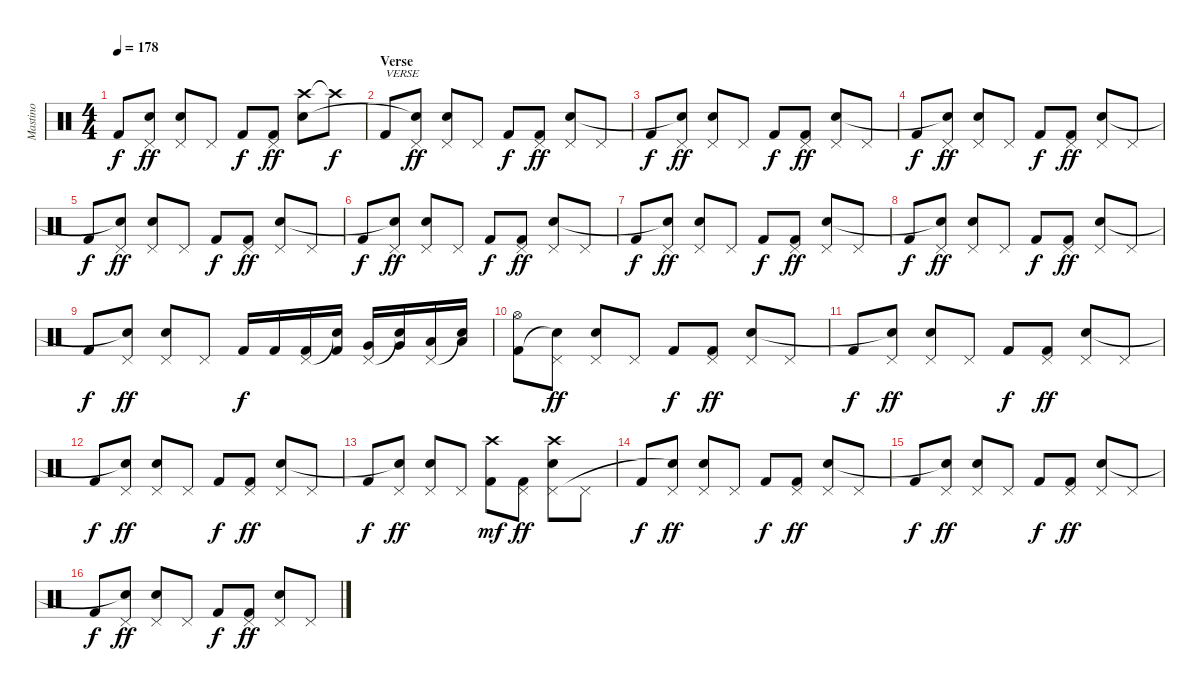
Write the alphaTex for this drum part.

\track ("Mastino" "Mastino") {instrument percussion}
\staff {score}
\articulation defaults
\ts (4 4)
\tempo 178
\clef neutral
\ks c "Kick (hit) 2".8{dy f}
("Pedal Hi-Hat (hit)" "Snare (hit)"{t}).8{dy ff} ("Pedal Hi-Hat (hit)" "Electric Snare (hit)").8 "Pedal Hi-Hat (hit)".8 "Kick (hit) 2".8{dy f} ("Pedal Hi-Hat (hit)" "Kick (hit) 2").8{dy ff} ("Crash high (hit)" "Electric Snare (hit)").8 "Crash high (hit)"{t}.8{dy f} |
\section ("" "Verse")
"Kick (hit) 2".8{txt "VERSE"} ("Pedal Hi-Hat (hit)" "Snare (hit)"{t}).8{dy ff} ("Pedal Hi-Hat (hit)" "Electric Snare (hit)").8 "Pedal Hi-Hat (hit)".8 "Kick (hit) 2".8{dy f} ("Pedal Hi-Hat (hit)" "Kick (hit) 2").8{dy ff} ("Pedal Hi-Hat (hit)" "Electric Snare (hit)").8 "Pedal Hi-Hat (hit)".8 |
"Kick (hit) 2".8{dy f} ("Pedal Hi-Hat (hit)" "Snare (hit)"{t}).8{dy ff} ("Pedal Hi-Hat (hit)" "Electric Snare (hit)").8 "Pedal Hi-Hat (hit)".8 "Kick (hit) 2".8{dy f} ("Pedal Hi-Hat (hit)" "Kick (hit) 2").8{dy ff} ("Pedal Hi-Hat (hit)" "Electric Snare (hit)").8 "Pedal Hi-Hat (hit)".8 |
"Kick (hit) 2".8{dy f} ("Pedal Hi-Hat (hit)" "Snare (hit)"{t}).8{dy ff} ("Pedal Hi-Hat (hit)" "Electric Snare (hit)").8 "Pedal Hi-Hat (hit)".8 "Kick (hit) 2".8{dy f} ("Pedal Hi-Hat (hit)" "Kick (hit) 2").8{dy ff} ("Pedal Hi-Hat (hit)" "Electric Snare (hit)").8 "Pedal Hi-Hat (hit)".8 |
"Kick (hit) 2".8{dy f} ("Pedal Hi-Hat (hit)" "Snare (hit)"{t}).8{dy ff} ("Pedal Hi-Hat (hit)" "Electric Snare (hit)").8 "Pedal Hi-Hat (hit)".8 "Kick (hit) 2".8{dy f} ("Pedal Hi-Hat (hit)" "Kick (hit) 2").8{dy ff} ("Pedal Hi-Hat (hit)" "Electric Snare (hit)").8 "Pedal Hi-Hat (hit)".8 |
"Kick (hit) 2".8{dy f} ("Pedal Hi-Hat (hit)" "Snare (hit)"{t}).8{dy ff} ("Pedal Hi-Hat (hit)" "Electric Snare (hit)").8 "Pedal Hi-Hat (hit)".8 "Kick (hit) 2".8{dy f} ("Pedal Hi-Hat (hit)" "Kick (hit) 2").8{dy ff} ("Pedal Hi-Hat (hit)" "Electric Snare (hit)").8 "Pedal Hi-Hat (hit)".8 |
"Kick (hit) 2".8{dy f} ("Pedal Hi-Hat (hit)" "Snare (hit)"{t}).8{dy ff} ("Pedal Hi-Hat (hit)" "Electric Snare (hit)").8 "Pedal Hi-Hat (hit)".8 "Kick (hit) 2".8{dy f} ("Pedal Hi-Hat (hit)" "Kick (hit) 2").8{dy ff} ("Pedal Hi-Hat (hit)" "Electric Snare (hit)").8 "Pedal Hi-Hat (hit)".8 |
"Kick (hit) 2".8{dy f} ("Pedal Hi-Hat (hit)" "Snare (hit)"{t}).8{dy ff} ("Pedal Hi-Hat (hit)" "Electric Snare (hit)").8 "Pedal Hi-Hat (hit)".8 "Kick (hit) 2".8{dy f} ("Pedal Hi-Hat (hit)" "Kick (hit) 2").8{dy ff} ("Pedal Hi-Hat (hit)" "Electric Snare (hit)").8 "Pedal Hi-Hat (hit)".8 |
"Kick (hit) 2".8{dy f} ("Pedal Hi-Hat (hit)" "Snare (hit)"{t}).8{dy ff} ("Pedal Hi-Hat (hit)" "Electric Snare (hit)").8 "Pedal Hi-Hat (hit)".8 "Kick (hit) 2".16{dy f} "Kick (hit) 2".16 ("Pedal Hi-Hat (hit)" "Kick (hit) 2").16 ("Snare (hit)"{t} "Kick (hit) 2").16 ("Pedal Hi-Hat (hit)" "Very Low Tom (hit)").16 ("Snare (hit)"{t} "Very Low Tom (hit)").16 ("Pedal Hi-Hat (hit)" "Low Floor Tom (hit)").16 ("Snare (hit)"{t} "Low Floor Tom (hit)").16 |
("Hi-Hat (open)" "Kick (hit) 2").8 ("Pedal Hi-Hat (hit)" "Snare (hit)"{t}).8{dy ff} ("Pedal Hi-Hat (hit)" "Electric Snare (hit)").8 "Pedal Hi-Hat (hit)".8 "Kick (hit) 2".8{dy f} ("Pedal Hi-Hat (hit)" "Kick (hit) 2").8{dy ff} ("Pedal Hi-Hat (hit)" "Electric Snare (hit)").8 "Pedal Hi-Hat (hit)".8 |
"Kick (hit) 2".8{dy f} ("Pedal Hi-Hat (hit)" "Snare (hit)"{t}).8{dy ff} ("Pedal Hi-Hat (hit)" "Electric Snare (hit)").8 "Pedal Hi-Hat (hit)".8 "Kick (hit) 2".8{dy f} ("Pedal Hi-Hat (hit)" "Kick (hit) 2").8{dy ff} ("Pedal Hi-Hat (hit)" "Electric Snare (hit)").8 "Pedal Hi-Hat (hit)".8 |
"Kick (hit) 2".8{dy f} ("Pedal Hi-Hat (hit)" "Snare (hit)"{t}).8{dy ff} ("Pedal Hi-Hat (hit)" "Electric Snare (hit)").8 "Pedal Hi-Hat (hit)".8 "Kick (hit) 2".8{dy f} ("Pedal Hi-Hat (hit)" "Kick (hit) 2").8{dy ff} ("Pedal Hi-Hat (hit)" "Electric Snare (hit)").8 "Pedal Hi-Hat (hit)".8 |
"Kick (hit) 2".8{dy f} ("Pedal Hi-Hat (hit)" "Snare (hit)"{t}).8{dy ff} ("Pedal Hi-Hat (hit)" "Electric Snare (hit)").8 "Pedal Hi-Hat (hit)".8 ("Crash high (hit)" "Kick (hit) 2").8{dy mf} ("Pedal Hi-Hat (hit)" "Kick (hit) 2").8{dy ff} ("Crash high (hit)" "Pedal Hi-Hat (hit)" "Electric Snare (hit)").8 "Pedal Hi-Hat (hit)".8 |
"Kick (hit) 2".8{dy f} ("Pedal Hi-Hat (hit)" "Snare (hit)"{t}).8{dy ff} ("Pedal Hi-Hat (hit)" "Electric Snare (hit)").8 "Pedal Hi-Hat (hit)".8 "Kick (hit) 2".8{dy f} ("Pedal Hi-Hat (hit)" "Kick (hit) 2").8{dy ff} ("Pedal Hi-Hat (hit)" "Electric Snare (hit)").8 "Pedal Hi-Hat (hit)".8 |
"Kick (hit) 2".8{dy f} ("Pedal Hi-Hat (hit)" "Snare (hit)"{t}).8{dy ff} ("Pedal Hi-Hat (hit)" "Electric Snare (hit)").8 "Pedal Hi-Hat (hit)".8 "Kick (hit) 2".8{dy f} ("Pedal Hi-Hat (hit)" "Kick (hit) 2").8{dy ff} ("Pedal Hi-Hat (hit)" "Electric Snare (hit)").8 "Pedal Hi-Hat (hit)".8 |
"Kick (hit) 2".8{dy f} ("Pedal Hi-Hat (hit)" "Snare (hit)"{t}).8{dy ff} ("Pedal Hi-Hat (hit)" "Electric Snare (hit)").8 "Pedal Hi-Hat (hit)".8 "Kick (hit) 2".8{dy f} ("Pedal Hi-Hat (hit)" "Kick (hit) 2").8{dy ff} ("Pedal Hi-Hat (hit)" "Electric Snare (hit)").8 "Pedal Hi-Hat (hit)".8
